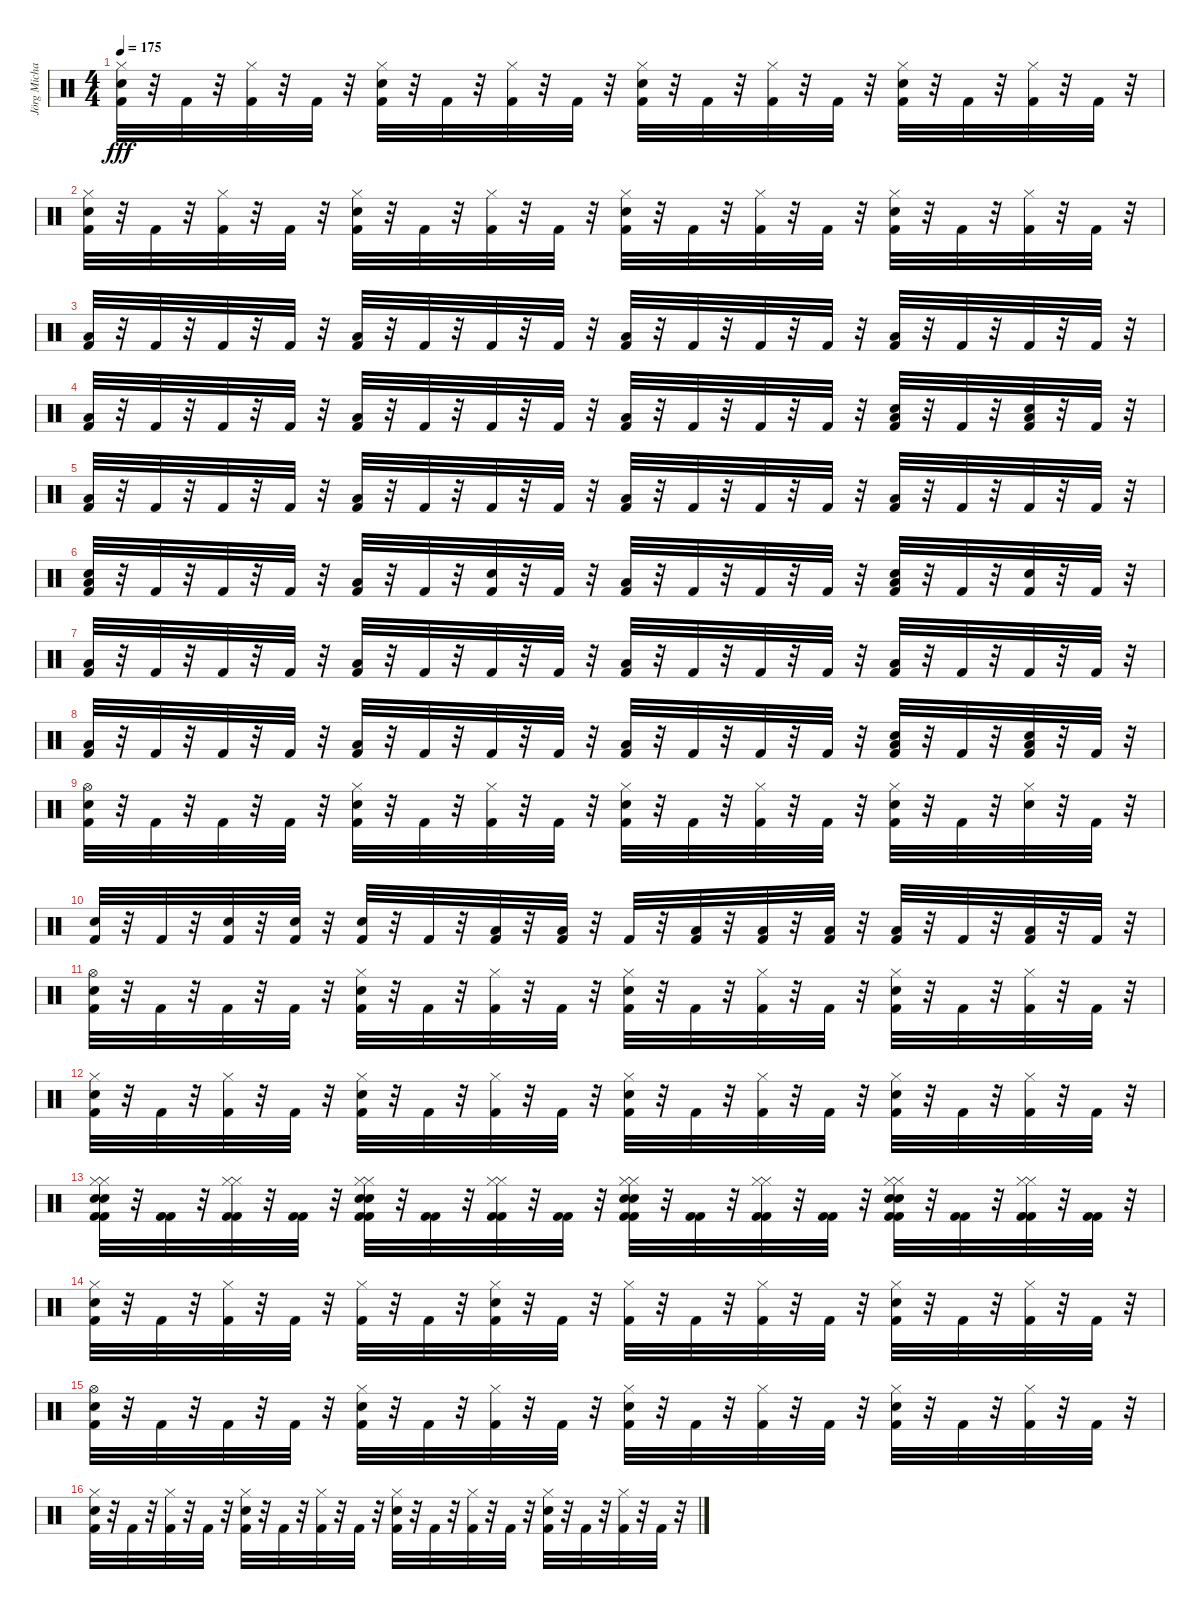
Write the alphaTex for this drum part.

\track ("Jörg Michael " "Jörg Micha") {instrument percussion}
\staff {score}
\articulation defaults
\ts (4 4)
\tempo 175
\clef neutral
\ks c
("Hi-Hat (closed)" "Snare (hit) 2" "Kick (hit) 2").32{dy fff} r.32 "Kick (hit) 2".32 r.32 ("Hi-Hat (closed)" "Kick (hit) 2").32 r.32 "Kick (hit) 2".32 r.32 ("Hi-Hat (closed)" "Snare (hit) 2" "Kick (hit) 2").32 r.32 "Kick (hit) 2".32 r.32 ("Hi-Hat (closed)" "Kick (hit) 2").32 r.32 "Kick (hit) 2".32 r.32 ("Hi-Hat (closed)" "Snare (hit) 2" "Kick (hit) 2").32 r.32 "Kick (hit) 2".32 r.32 ("Hi-Hat (closed)" "Kick (hit) 2").32 r.32 "Kick (hit) 2".32 r.32 ("Hi-Hat (closed)" "Snare (hit) 2" "Kick (hit) 2").32 r.32 "Kick (hit) 2".32 r.32 ("Hi-Hat (closed)" "Kick (hit) 2").32 r.32 "Kick (hit) 2".32 r.32 |
("Hi-Hat (closed)" "Snare (hit) 2" "Kick (hit) 2").32 r.32 "Kick (hit) 2".32 r.32 ("Hi-Hat (closed)" "Kick (hit) 2").32 r.32 "Kick (hit) 2".32 r.32 ("Hi-Hat (closed)" "Snare (hit) 2" "Kick (hit) 2").32 r.32 "Kick (hit) 2".32 r.32 ("Hi-Hat (closed)" "Kick (hit) 2").32 r.32 "Kick (hit) 2".32 r.32 ("Hi-Hat (closed)" "Snare (hit) 2" "Kick (hit) 2").32 r.32 "Kick (hit) 2".32 r.32 ("Hi-Hat (closed)" "Kick (hit) 2").32 r.32 "Kick (hit) 2".32 r.32 ("Hi-Hat (closed)" "Snare (hit) 2" "Kick (hit) 2").32 r.32 "Kick (hit) 2".32 r.32 ("Hi-Hat (closed)" "Kick (hit) 2").32 r.32 "Kick (hit) 2".32 r.32 |
("Low Floor Tom (hit)" "Kick (hit) 2").32 r.32 "Kick (hit) 2".32 r.32 "Kick (hit) 2".32 r.32 "Kick (hit) 2".32 r.32 ("Low Floor Tom (hit)" "Kick (hit) 2").32 r.32 "Kick (hit) 2".32 r.32 "Kick (hit) 2".32 r.32 "Kick (hit) 2".32 r.32 ("Low Floor Tom (hit)" "Kick (hit) 2").32 r.32 "Kick (hit) 2".32 r.32 "Kick (hit) 2".32 r.32 "Kick (hit) 2".32 r.32 ("Low Floor Tom (hit)" "Kick (hit) 2").32 r.32 "Kick (hit) 2".32 r.32 "Kick (hit) 2".32 r.32 "Kick (hit) 2".32 r.32 |
("Low Floor Tom (hit)" "Kick (hit) 2").32 r.32 "Kick (hit) 2".32 r.32 "Kick (hit) 2".32 r.32 "Kick (hit) 2".32 r.32 ("Low Floor Tom (hit)" "Kick (hit) 2").32 r.32 "Kick (hit) 2".32 r.32 "Kick (hit) 2".32 r.32 "Kick (hit) 2".32 r.32 ("Low Floor Tom (hit)" "Kick (hit) 2").32 r.32 "Kick (hit) 2".32 r.32 "Kick (hit) 2".32 r.32 "Kick (hit) 2".32 r.32 ("Low Floor Tom (hit)" "Snare (hit) 2" "Kick (hit) 2").32 r.32 "Kick (hit) 2".32 r.32 ("Low Floor Tom (hit)" "Snare (hit) 2" "Kick (hit) 2").32 r.32 "Kick (hit) 2".32 r.32 |
("Low Floor Tom (hit)" "Kick (hit) 2").32 r.32 "Kick (hit) 2".32 r.32 "Kick (hit) 2".32 r.32 "Kick (hit) 2".32 r.32 ("Low Floor Tom (hit)" "Kick (hit) 2").32 r.32 "Kick (hit) 2".32 r.32 "Kick (hit) 2".32 r.32 "Kick (hit) 2".32 r.32 ("Low Floor Tom (hit)" "Kick (hit) 2").32 r.32 "Kick (hit) 2".32 r.32 "Kick (hit) 2".32 r.32 "Kick (hit) 2".32 r.32 ("Low Floor Tom (hit)" "Kick (hit) 2").32 r.32 "Kick (hit) 2".32 r.32 "Kick (hit) 2".32 r.32 "Kick (hit) 2".32 r.32 |
("Low Floor Tom (hit)" "Snare (hit) 2" "Kick (hit) 2").32 r.32 "Kick (hit) 2".32 r.32 "Kick (hit) 2".32 r.32 "Kick (hit) 2".32 r.32 ("Low Floor Tom (hit)" "Kick (hit) 2").32 r.32 "Kick (hit) 2".32 r.32 ("Snare (hit) 2" "Kick (hit) 2").32 r.32 "Kick (hit) 2".32 r.32 ("Low Floor Tom (hit)" "Kick (hit) 2").32 r.32 "Kick (hit) 2".32 r.32 "Kick (hit) 2".32 r.32 "Kick (hit) 2".32 r.32 ("Low Floor Tom (hit)" "Snare (hit) 2" "Kick (hit) 2").32 r.32 "Kick (hit) 2".32 r.32 ("Snare (hit) 2" "Kick (hit) 2").32 r.32 "Kick (hit) 2".32 r.32 |
("Low Floor Tom (hit)" "Kick (hit) 2").32 r.32 "Kick (hit) 2".32 r.32 "Kick (hit) 2".32 r.32 "Kick (hit) 2".32 r.32 ("Low Floor Tom (hit)" "Kick (hit) 2").32 r.32 "Kick (hit) 2".32 r.32 "Kick (hit) 2".32 r.32 "Kick (hit) 2".32 r.32 ("Low Floor Tom (hit)" "Kick (hit) 2").32 r.32 "Kick (hit) 2".32 r.32 "Kick (hit) 2".32 r.32 "Kick (hit) 2".32 r.32 ("Low Floor Tom (hit)" "Kick (hit) 2").32 r.32 "Kick (hit) 2".32 r.32 "Kick (hit) 2".32 r.32 "Kick (hit) 2".32 r.32 |
("Low Floor Tom (hit)" "Kick (hit) 2").32 r.32 "Kick (hit) 2".32 r.32 "Kick (hit) 2".32 r.32 "Kick (hit) 2".32 r.32 ("Low Floor Tom (hit)" "Kick (hit) 2").32 r.32 "Kick (hit) 2".32 r.32 "Kick (hit) 2".32 r.32 "Kick (hit) 2".32 r.32 ("Low Floor Tom (hit)" "Kick (hit) 2").32 r.32 "Kick (hit) 2".32 r.32 "Kick (hit) 2".32 r.32 "Kick (hit) 2".32 r.32 ("Low Floor Tom (hit)" "Snare (hit) 2" "Kick (hit) 2").32 r.32 "Kick (hit) 2".32 r.32 ("Low Floor Tom (hit)" "Snare (hit) 2" "Kick (hit) 2").32 r.32 "Kick (hit) 2".32 r.32 |
("Hi-Hat (open)" "Snare (hit) 2" "Kick (hit) 2").32 r.32 "Kick (hit) 2".32 r.32 "Kick (hit) 2".32 r.32 "Kick (hit) 2".32 r.32 ("Hi-Hat (closed)" "Snare (hit) 2" "Kick (hit) 2").32 r.32 "Kick (hit) 2".32 r.32 ("Hi-Hat (closed)" "Kick (hit) 2").32 r.32 "Kick (hit) 2".32 r.32 ("Hi-Hat (closed)" "Snare (hit) 2" "Kick (hit) 2").32 r.32 "Kick (hit) 2".32 r.32 ("Hi-Hat (closed)" "Kick (hit) 2").32 r.32 "Kick (hit) 2".32 r.32 ("Hi-Hat (closed)" "Snare (hit) 2" "Kick (hit) 2").32 r.32 "Kick (hit) 2".32 r.32 ("Hi-Hat (closed)" "Snare (hit) 2").32 r.32 "Kick (hit) 2".32 r.32 |
("Snare (hit) 2" "Kick (hit) 2").32 r.32 "Kick (hit) 2".32 r.32 ("Snare (hit) 2" "Kick (hit) 2").32 r.32 ("Snare (hit) 2" "Kick (hit) 2").32 r.32 ("Snare (hit) 2" "Kick (hit) 2").32 r.32 "Kick (hit) 2".32 r.32 ("Low Floor Tom (hit)" "Kick (hit) 2").32 r.32 ("Low Floor Tom (hit)" "Kick (hit) 2").32 r.32 "Kick (hit) 2".32 r.32 ("Low Floor Tom (hit)" "Kick (hit) 2").32 r.32 ("Low Floor Tom (hit)" "Kick (hit) 2").32 r.32 ("Low Floor Tom (hit)" "Kick (hit) 2").32 r.32 ("Low Floor Tom (hit)" "Kick (hit) 2").32 r.32 "Kick (hit) 2".32 r.32 ("Low Floor Tom (hit)" "Kick (hit) 2").32 r.32 "Kick (hit) 2".32 r.32 |
("Hi-Hat (open)" "Snare (hit) 2" "Kick (hit) 2").32 r.32 "Kick (hit) 2".32 r.32 "Kick (hit) 2".32 r.32 "Kick (hit) 2".32 r.32 ("Hi-Hat (closed)" "Snare (hit) 2" "Kick (hit) 2").32 r.32 "Kick (hit) 2".32 r.32 ("Hi-Hat (closed)" "Kick (hit) 2").32 r.32 "Kick (hit) 2".32 r.32 ("Hi-Hat (closed)" "Snare (hit) 2" "Kick (hit) 2").32 r.32 "Kick (hit) 2".32 r.32 ("Hi-Hat (closed)" "Kick (hit) 2").32 r.32 "Kick (hit) 2".32 r.32 ("Hi-Hat (closed)" "Snare (hit) 2" "Kick (hit) 2").32 r.32 "Kick (hit) 2".32 r.32 ("Hi-Hat (closed)" "Kick (hit) 2").32 r.32 "Kick (hit) 2".32 r.32 |
("Hi-Hat (closed)" "Snare (hit) 2" "Kick (hit) 2").32 r.32 "Kick (hit) 2".32 r.32 ("Hi-Hat (closed)" "Kick (hit) 2").32 r.32 "Kick (hit) 2".32 r.32 ("Hi-Hat (closed)" "Snare (hit) 2" "Kick (hit) 2").32 r.32 "Kick (hit) 2".32 r.32 ("Hi-Hat (closed)" "Kick (hit) 2").32 r.32 "Kick (hit) 2".32 r.32 ("Hi-Hat (closed)" "Snare (hit) 2" "Kick (hit) 2").32 r.32 "Kick (hit) 2".32 r.32 ("Hi-Hat (closed)" "Kick (hit) 2").32 r.32 "Kick (hit) 2".32 r.32 ("Hi-Hat (closed)" "Snare (hit) 2" "Kick (hit) 2").32 r.32 "Kick (hit) 2".32 r.32 ("Hi-Hat (closed)" "Kick (hit) 2").32 r.32 "Kick (hit) 2".32 r.32 |
("Hi-Hat (closed)" "Hi-Hat (closed)" "Snare (hit) 2" "Snare (hit) 2" "Kick (hit) 2" "Kick (hit) 2").32 r.32 ("Kick (hit) 2" "Kick (hit) 2").32 r.32 ("Hi-Hat (closed)" "Hi-Hat (closed)" "Kick (hit) 2" "Kick (hit) 2").32 r.32 ("Kick (hit) 2" "Kick (hit) 2").32 r.32 ("Hi-Hat (closed)" "Hi-Hat (closed)" "Snare (hit) 2" "Snare (hit) 2" "Kick (hit) 2" "Kick (hit) 2").32 r.32 ("Kick (hit) 2" "Kick (hit) 2").32 r.32 ("Hi-Hat (closed)" "Hi-Hat (closed)" "Kick (hit) 2" "Kick (hit) 2").32 r.32 ("Kick (hit) 2" "Kick (hit) 2").32 r.32 ("Hi-Hat (closed)" "Hi-Hat (closed)" "Snare (hit) 2" "Snare (hit) 2" "Kick (hit) 2" "Kick (hit) 2").32 r.32 ("Kick (hit) 2" "Kick (hit) 2").32 r.32 ("Hi-Hat (closed)" "Hi-Hat (closed)" "Kick (hit) 2" "Kick (hit) 2").32 r.32 ("Kick (hit) 2" "Kick (hit) 2").32 r.32 ("Hi-Hat (closed)" "Hi-Hat (closed)" "Snare (hit) 2" "Snare (hit) 2" "Kick (hit) 2" "Kick (hit) 2").32 r.32 ("Kick (hit) 2" "Kick (hit) 2").32 r.32 ("Hi-Hat (closed)" "Hi-Hat (closed)" "Kick (hit) 2" "Kick (hit) 2").32 r.32 ("Kick (hit) 2" "Kick (hit) 2").32 r.32 |
("Hi-Hat (closed)" "Snare (hit) 2" "Kick (hit) 2").32 r.32 "Kick (hit) 2".32 r.32 ("Hi-Hat (closed)" "Kick (hit) 2").32 r.32 "Kick (hit) 2".32 r.32 ("Hi-Hat (closed)" "Kick (hit) 2").32 r.32 "Kick (hit) 2".32 r.32 ("Hi-Hat (closed)" "Snare (hit) 2" "Kick (hit) 2").32 r.32 "Kick (hit) 2".32 r.32 ("Hi-Hat (closed)" "Kick (hit) 2").32 r.32 "Kick (hit) 2".32 r.32 ("Hi-Hat (closed)" "Kick (hit) 2").32 r.32 "Kick (hit) 2".32 r.32 ("Hi-Hat (closed)" "Snare (hit) 2" "Kick (hit) 2").32 r.32 "Kick (hit) 2".32 r.32 ("Hi-Hat (closed)" "Kick (hit) 2").32 r.32 "Kick (hit) 2".32 r.32 |
("Hi-Hat (open)" "Snare (hit) 2" "Kick (hit) 2").32 r.32 "Kick (hit) 2".32 r.32 "Kick (hit) 2".32 r.32 "Kick (hit) 2".32 r.32 ("Hi-Hat (closed)" "Snare (hit) 2" "Kick (hit) 2").32 r.32 "Kick (hit) 2".32 r.32 ("Hi-Hat (closed)" "Kick (hit) 2").32 r.32 "Kick (hit) 2".32 r.32 ("Hi-Hat (closed)" "Snare (hit) 2" "Kick (hit) 2").32 r.32 "Kick (hit) 2".32 r.32 ("Hi-Hat (closed)" "Kick (hit) 2").32 r.32 "Kick (hit) 2".32 r.32 ("Hi-Hat (closed)" "Snare (hit) 2" "Kick (hit) 2").32 r.32 "Kick (hit) 2".32 r.32 ("Hi-Hat (closed)" "Kick (hit) 2").32 r.32 "Kick (hit) 2".32 r.32 |
("Hi-Hat (closed)" "Snare (hit) 2" "Kick (hit) 2").32 r.32 "Kick (hit) 2".32 r.32 ("Hi-Hat (closed)" "Kick (hit) 2").32 r.32 "Kick (hit) 2".32 r.32 ("Hi-Hat (closed)" "Snare (hit) 2" "Kick (hit) 2").32 r.32 "Kick (hit) 2".32 r.32 ("Hi-Hat (closed)" "Kick (hit) 2").32 r.32 "Kick (hit) 2".32 r.32 ("Hi-Hat (closed)" "Snare (hit) 2" "Kick (hit) 2").32 r.32 "Kick (hit) 2".32 r.32 ("Hi-Hat (closed)" "Kick (hit) 2").32 r.32 "Kick (hit) 2".32 r.32 ("Hi-Hat (closed)" "Snare (hit) 2" "Kick (hit) 2").32 r.32 "Kick (hit) 2".32 r.32 ("Hi-Hat (closed)" "Kick (hit) 2").32 r.32 "Kick (hit) 2".32 r.32
